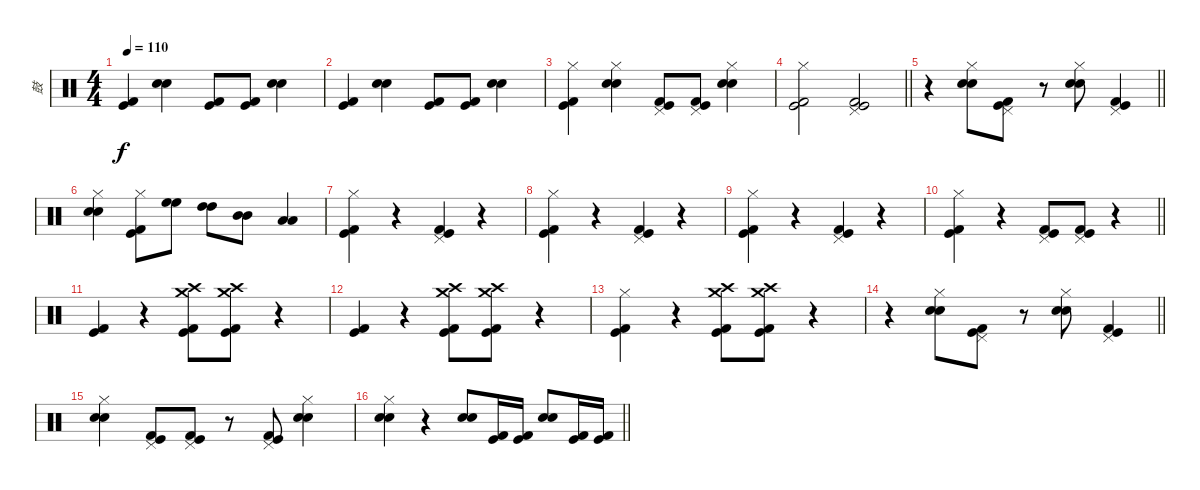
\track ("鼓" "鼓") {instrument percussion}
\staff {score}
\articulation defaults
\ts (4 4)
\tempo 110
\clef neutral
\ks c
("Kick (hit) 2" "Kick (hit)").4{dy f} ("Electric Snare (hit)" "Snare (hit) 2").4 ("Kick (hit) 2" "Kick (hit)").8 ("Kick (hit) 2" "Kick (hit)").8 ("Electric Snare (hit)" "Snare (hit) 2").4 |
("Kick (hit) 2" "Kick (hit)").4 ("Electric Snare (hit)" "Snare (hit) 2").4 ("Kick (hit) 2" "Kick (hit)").8 ("Kick (hit) 2" "Kick (hit)").8 ("Electric Snare (hit)" "Snare (hit) 2").4 |
("Kick (hit) 2" "Kick (hit)" "Hi-Hat (closed)").4 ("Electric Snare (hit)" "Snare (hit) 2" "Hi-Hat (closed)").4 ("Kick (hit) 2" "Kick (hit)" "Pedal Hi-Hat (hit)").8 ("Kick (hit) 2" "Kick (hit)" "Pedal Hi-Hat (hit)").8 ("Electric Snare (hit)" "Snare (hit) 2" "Hi-Hat (closed)").4 |
\barLineRight lightlight
("Kick (hit) 2" "Kick (hit)" "Hi-Hat (closed)").2 ("Kick (hit) 2" "Kick (hit)" "Pedal Hi-Hat (hit)").2 |
\barLineRight lightlight
r.4 ("Electric Snare (hit)" "Snare (hit) 2" "Hi-Hat (closed)").8 ("Kick (hit) 2" "Kick (hit)" "Pedal Hi-Hat (hit)").8 r.8 ("Electric Snare (hit)" "Snare (hit) 2" "Hi-Hat (closed)").8 ("Kick (hit) 2" "Kick (hit)" "Pedal Hi-Hat (hit)").4 |
("Electric Snare (hit)" "Snare (hit) 2" "Hi-Hat (closed)").4 ("Kick (hit)" "Kick (hit) 2" "Hi-Hat (closed)").8 ("High Floor Tom (hit)" "High Floor Tom (hit)").8 ("High Tom (hit)" "High Tom (hit)").8 ("Mid Tom (hit)" "Mid Tom (hit)").8 ("Low Tom (hit)" "Low Tom (hit)").4 |
("Kick (hit) 2" "Kick (hit)" "Hi-Hat (closed)").4 r.4 ("Kick (hit) 2" "Kick (hit)" "Pedal Hi-Hat (hit)").4 r.4 |
("Kick (hit) 2" "Kick (hit)" "Hi-Hat (closed)").4 r.4 ("Kick (hit) 2" "Kick (hit)" "Pedal Hi-Hat (hit)").4 r.4 |
("Kick (hit) 2" "Kick (hit)" "Hi-Hat (closed)").4 r.4 ("Kick (hit) 2" "Kick (hit)" "Pedal Hi-Hat (hit)").4 r.4 |
\barLineRight lightlight
("Kick (hit) 2" "Kick (hit)" "Hi-Hat (closed)").4 r.4 ("Kick (hit) 2" "Kick (hit)" "Pedal Hi-Hat (hit)").8 ("Kick (hit) 2" "Kick (hit)" "Pedal Hi-Hat (hit)").8 r.4 |
("Kick (hit) 2" "Kick (hit)").4 r.4 ("Kick (hit) 2" "Kick (hit)" "Crash medium (hit)" "Crash high (hit)").8 ("Kick (hit) 2" "Kick (hit)" "Crash medium (hit)" "Crash high (hit)").8 r.4 |
("Kick (hit) 2" "Kick (hit)").4 r.4 ("Kick (hit) 2" "Kick (hit)" "Crash medium (hit)" "Crash high (hit)").8 ("Kick (hit) 2" "Kick (hit)" "Crash medium (hit)" "Crash high (hit)").8 r.4 |
("Kick (hit) 2" "Kick (hit)" "Hi-Hat (closed)").4 r.4 ("Kick (hit) 2" "Kick (hit)" "Crash high (hit)" "Crash medium (hit)").8 ("Kick (hit) 2" "Kick (hit)" "Crash high (hit)" "Crash medium (hit)").8 r.4 |
\barLineRight lightlight
r.4 ("Electric Snare (hit)" "Snare (hit) 2" "Hi-Hat (closed)").8 ("Kick (hit) 2" "Kick (hit)" "Pedal Hi-Hat (hit)").8 r.8 ("Electric Snare (hit)" "Snare (hit) 2" "Hi-Hat (closed)").8 ("Kick (hit) 2" "Kick (hit)" "Pedal Hi-Hat (hit)").4 |
("Electric Snare (hit)" "Snare (hit) 2" "Hi-Hat (closed)").4 ("Kick (hit) 2" "Kick (hit)" "Pedal Hi-Hat (hit)").8 ("Kick (hit) 2" "Kick (hit)" "Pedal Hi-Hat (hit)").8 r.8 ("Kick (hit) 2" "Kick (hit)" "Pedal Hi-Hat (hit)").8 ("Electric Snare (hit)" "Snare (hit) 2" "Hi-Hat (closed)").4 |
\barLineRight lightlight
("Electric Snare (hit)" "Snare (hit) 2" "Hi-Hat (closed)").4 r.4 ("Snare (hit) 2" "Electric Snare (hit)").8 ("Kick (hit)" "Kick (hit) 2").16 ("Kick (hit)" "Kick (hit) 2").16 ("Snare (hit) 2" "Electric Snare (hit)").8 ("Kick (hit)" "Kick (hit) 2").16 ("Kick (hit)" "Kick (hit) 2").16
